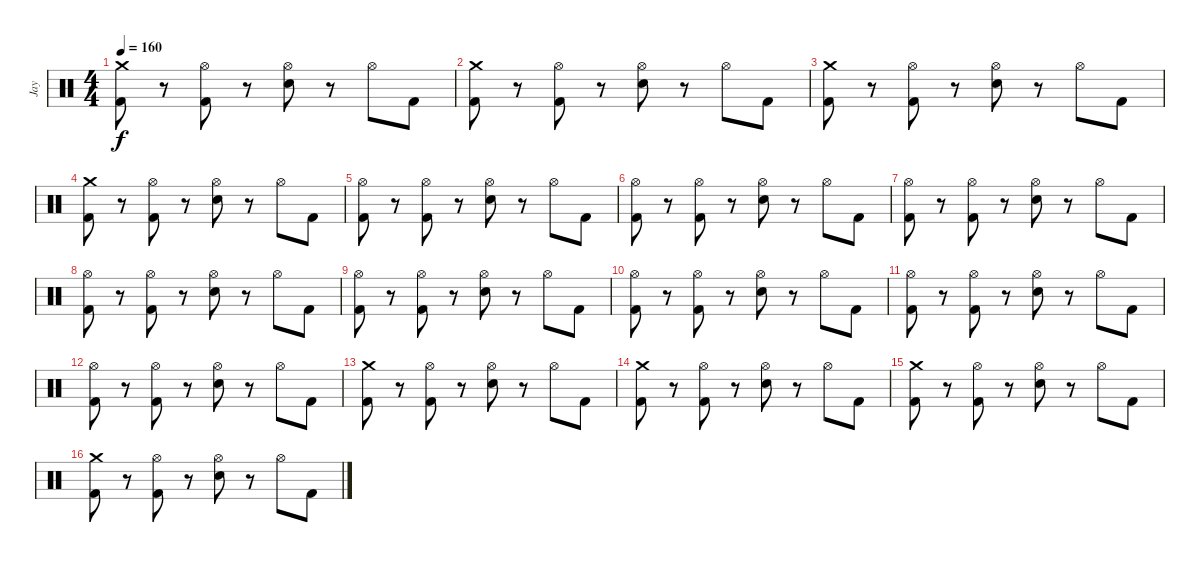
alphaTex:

\track ("Jay" "Jay") {instrument percussion}
\staff {score}
\articulation defaults
\ts (4 4)
\tempo 160
\clef neutral
\ks c
("Crash medium (hit)" "Kick (hit) 2").8{dy f} r.8 ("Hi-Hat (open)" "Kick (hit) 2").8 r.8 ("Hi-Hat (open)" "Electric Snare (hit)").8 r.8 "Hi-Hat (open)".8 "Kick (hit) 2".8 |
("Crash medium (hit)" "Kick (hit) 2").8 r.8 ("Hi-Hat (open)" "Kick (hit) 2").8 r.8 ("Hi-Hat (open)" "Electric Snare (hit)").8 r.8 "Hi-Hat (open)".8 "Kick (hit) 2".8 |
("Crash medium (hit)" "Kick (hit) 2").8 r.8 ("Hi-Hat (open)" "Kick (hit) 2").8 r.8 ("Hi-Hat (open)" "Electric Snare (hit)").8 r.8 "Hi-Hat (open)".8 "Kick (hit) 2".8 |
("Crash medium (hit)" "Kick (hit) 2").8 r.8 ("Hi-Hat (open)" "Kick (hit) 2").8 r.8 ("Hi-Hat (open)" "Electric Snare (hit)").8 r.8 "Hi-Hat (open)".8 "Kick (hit) 2".8 |
("Hi-Hat (open)" "Kick (hit) 2").8 r.8 ("Hi-Hat (open)" "Kick (hit) 2").8 r.8 ("Hi-Hat (open)" "Electric Snare (hit)").8 r.8 "Hi-Hat (open)".8 "Kick (hit) 2".8 |
("Hi-Hat (open)" "Kick (hit) 2").8 r.8 ("Hi-Hat (open)" "Kick (hit) 2").8 r.8 ("Hi-Hat (open)" "Electric Snare (hit)").8 r.8 "Hi-Hat (open)".8 "Kick (hit) 2".8 |
("Hi-Hat (open)" "Kick (hit) 2").8 r.8 ("Hi-Hat (open)" "Kick (hit) 2").8 r.8 ("Hi-Hat (open)" "Electric Snare (hit)").8 r.8 "Hi-Hat (open)".8 "Kick (hit) 2".8 |
("Hi-Hat (open)" "Kick (hit) 2").8 r.8 ("Hi-Hat (open)" "Kick (hit) 2").8 r.8 ("Hi-Hat (open)" "Electric Snare (hit)").8 r.8 "Hi-Hat (open)".8 "Kick (hit) 2".8 |
("Hi-Hat (open)" "Kick (hit) 2").8 r.8 ("Hi-Hat (open)" "Kick (hit) 2").8 r.8 ("Hi-Hat (open)" "Electric Snare (hit)").8 r.8 "Hi-Hat (open)".8 "Kick (hit) 2".8 |
("Hi-Hat (open)" "Kick (hit) 2").8 r.8 ("Hi-Hat (open)" "Kick (hit) 2").8 r.8 ("Hi-Hat (open)" "Electric Snare (hit)").8 r.8 "Hi-Hat (open)".8 "Kick (hit) 2".8 |
("Hi-Hat (open)" "Kick (hit) 2").8 r.8 ("Hi-Hat (open)" "Kick (hit) 2").8 r.8 ("Hi-Hat (open)" "Electric Snare (hit)").8 r.8 "Hi-Hat (open)".8 "Kick (hit) 2".8 |
("Hi-Hat (open)" "Kick (hit) 2").8 r.8 ("Hi-Hat (open)" "Kick (hit) 2").8 r.8 ("Hi-Hat (open)" "Electric Snare (hit)").8 r.8 "Hi-Hat (open)".8 "Kick (hit) 2".8 |
("Crash medium (hit)" "Kick (hit) 2").8 r.8 ("Hi-Hat (open)" "Kick (hit) 2").8 r.8 ("Hi-Hat (open)" "Electric Snare (hit)").8 r.8 "Hi-Hat (open)".8 "Kick (hit) 2".8 |
("Crash medium (hit)" "Kick (hit) 2").8 r.8 ("Hi-Hat (open)" "Kick (hit) 2").8 r.8 ("Hi-Hat (open)" "Electric Snare (hit)").8 r.8 "Hi-Hat (open)".8 "Kick (hit) 2".8 |
("Crash medium (hit)" "Kick (hit) 2").8 r.8 ("Hi-Hat (open)" "Kick (hit) 2").8 r.8 ("Hi-Hat (open)" "Electric Snare (hit)").8 r.8 "Hi-Hat (open)".8 "Kick (hit) 2".8 |
("Crash medium (hit)" "Kick (hit) 2").8 r.8 ("Hi-Hat (open)" "Kick (hit) 2").8 r.8 ("Hi-Hat (open)" "Electric Snare (hit)").8 r.8 "Hi-Hat (open)".8 "Kick (hit) 2".8
